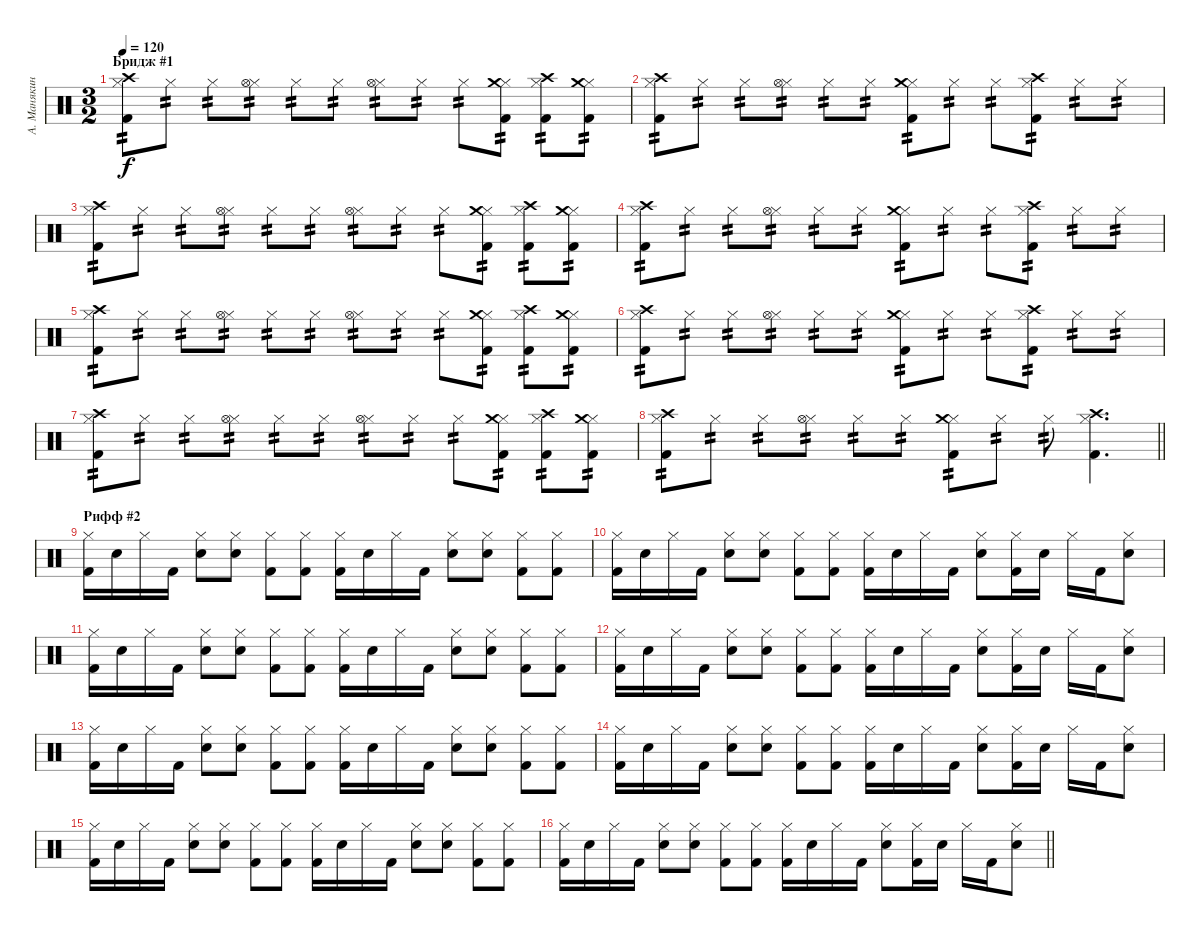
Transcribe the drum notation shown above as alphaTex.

\track ("А. Манякин" "А. Манякин") {instrument percussion}
\staff {score}
\articulation defaults
\ts (3 2)
\section ("" "Бридж #1")
\tempo 120
\clef neutral
\ks c
("Kick (hit) 2" "Hi-Hat (closed)" "Crash high (hit)").8{tp 2 dy f} "Hi-Hat (closed)".8{tp 2} "Hi-Hat (closed)".8{tp 2} ("Hi-Hat (closed)" "Hi-Hat (open)").8{tp 2} "Hi-Hat (closed)".8{tp 2} "Hi-Hat (closed)".8{tp 2} ("Hi-Hat (closed)" "Hi-Hat (open)").8{tp 2} "Hi-Hat (closed)".8{tp 2} "Hi-Hat (closed)".8{tp 2} ("Kick (hit) 2" "Hi-Hat (closed)" "Crash medium (hit)").8{tp 2} ("Kick (hit) 2" "Hi-Hat (closed)" "Crash high (hit)").8{tp 2} ("Kick (hit) 2" "Hi-Hat (closed)" "Crash medium (hit)").8{tp 2} |
("Kick (hit) 2" "Hi-Hat (closed)" "Crash high (hit)").8{tp 2} "Hi-Hat (closed)".8{tp 2} "Hi-Hat (closed)".8{tp 2} ("Hi-Hat (closed)" "Hi-Hat (open)").8{tp 2} "Hi-Hat (closed)".8{tp 2} "Hi-Hat (closed)".8{tp 2} ("Kick (hit) 2" "Hi-Hat (closed)" "Crash medium (hit)").8{tp 2} "Hi-Hat (closed)".8{tp 2} "Hi-Hat (closed)".8{tp 2} ("Kick (hit) 2" "Hi-Hat (closed)" "Crash high (hit)").8{tp 2} "Hi-Hat (closed)".8{tp 2} "Hi-Hat (closed)".8{tp 2} |
("Kick (hit) 2" "Hi-Hat (closed)" "Crash high (hit)").8{tp 2} "Hi-Hat (closed)".8{tp 2} "Hi-Hat (closed)".8{tp 2} ("Hi-Hat (closed)" "Hi-Hat (open)").8{tp 2} "Hi-Hat (closed)".8{tp 2} "Hi-Hat (closed)".8{tp 2} ("Hi-Hat (closed)" "Hi-Hat (open)").8{tp 2} "Hi-Hat (closed)".8{tp 2} "Hi-Hat (closed)".8{tp 2} ("Kick (hit) 2" "Hi-Hat (closed)" "Crash medium (hit)").8{tp 2} ("Kick (hit) 2" "Hi-Hat (closed)" "Crash high (hit)").8{tp 2} ("Kick (hit) 2" "Hi-Hat (closed)" "Crash medium (hit)").8{tp 2} |
("Kick (hit) 2" "Hi-Hat (closed)" "Crash high (hit)").8{tp 2} "Hi-Hat (closed)".8{tp 2} "Hi-Hat (closed)".8{tp 2} ("Hi-Hat (closed)" "Hi-Hat (open)").8{tp 2} "Hi-Hat (closed)".8{tp 2} "Hi-Hat (closed)".8{tp 2} ("Kick (hit) 2" "Hi-Hat (closed)" "Crash medium (hit)").8{tp 2} "Hi-Hat (closed)".8{tp 2} "Hi-Hat (closed)".8{tp 2} ("Kick (hit) 2" "Hi-Hat (closed)" "Crash high (hit)").8{tp 2} "Hi-Hat (closed)".8{tp 2} "Hi-Hat (closed)".8{tp 2} |
("Kick (hit) 2" "Hi-Hat (closed)" "Crash high (hit)").8{tp 2} "Hi-Hat (closed)".8{tp 2} "Hi-Hat (closed)".8{tp 2} ("Hi-Hat (closed)" "Hi-Hat (open)").8{tp 2} "Hi-Hat (closed)".8{tp 2} "Hi-Hat (closed)".8{tp 2} ("Hi-Hat (closed)" "Hi-Hat (open)").8{tp 2} "Hi-Hat (closed)".8{tp 2} "Hi-Hat (closed)".8{tp 2} ("Kick (hit) 2" "Hi-Hat (closed)" "Crash medium (hit)").8{tp 2} ("Kick (hit) 2" "Hi-Hat (closed)" "Crash high (hit)").8{tp 2} ("Kick (hit) 2" "Hi-Hat (closed)" "Crash medium (hit)").8{tp 2} |
("Kick (hit) 2" "Hi-Hat (closed)" "Crash high (hit)").8{tp 2} "Hi-Hat (closed)".8{tp 2} "Hi-Hat (closed)".8{tp 2} ("Hi-Hat (closed)" "Hi-Hat (open)").8{tp 2} "Hi-Hat (closed)".8{tp 2} "Hi-Hat (closed)".8{tp 2} ("Kick (hit) 2" "Hi-Hat (closed)" "Crash medium (hit)").8{tp 2} "Hi-Hat (closed)".8{tp 2} "Hi-Hat (closed)".8{tp 2} ("Kick (hit) 2" "Hi-Hat (closed)" "Crash high (hit)").8{tp 2} "Hi-Hat (closed)".8{tp 2} "Hi-Hat (closed)".8{tp 2} |
("Kick (hit) 2" "Hi-Hat (closed)" "Crash high (hit)").8{tp 2} "Hi-Hat (closed)".8{tp 2} "Hi-Hat (closed)".8{tp 2} ("Hi-Hat (closed)" "Hi-Hat (open)").8{tp 2} "Hi-Hat (closed)".8{tp 2} "Hi-Hat (closed)".8{tp 2} ("Hi-Hat (closed)" "Hi-Hat (open)").8{tp 2} "Hi-Hat (closed)".8{tp 2} "Hi-Hat (closed)".8{tp 2} ("Kick (hit) 2" "Hi-Hat (closed)" "Crash medium (hit)").8{tp 2} ("Kick (hit) 2" "Hi-Hat (closed)" "Crash high (hit)").8{tp 2} ("Kick (hit) 2" "Hi-Hat (closed)" "Crash medium (hit)").8{tp 2} |
\barLineRight lightlight
("Kick (hit) 2" "Hi-Hat (closed)" "Crash high (hit)").8{tp 2} "Hi-Hat (closed)".8{tp 2} "Hi-Hat (closed)".8{tp 2} ("Hi-Hat (closed)" "Hi-Hat (open)").8{tp 2} "Hi-Hat (closed)".8{tp 2} "Hi-Hat (closed)".8{tp 2} ("Kick (hit) 2" "Hi-Hat (closed)" "Crash medium (hit)").8{tp 2} "Hi-Hat (closed)".8{tp 2} "Hi-Hat (closed)".8{tp 2} ("Kick (hit) 2" "Hi-Hat (closed)" "Crash high (hit)").4{d} |
\section ("" "Рифф #2")
("Kick (hit) 2" "Hi-Hat (closed)").16 "Electric Snare (hit)".16 "Hi-Hat (closed)".16 "Kick (hit) 2".16 ("Electric Snare (hit)" "Hi-Hat (closed)").8 ("Electric Snare (hit)" "Hi-Hat (closed)").8 ("Kick (hit) 2" "Hi-Hat (closed)").8 ("Kick (hit) 2" "Hi-Hat (closed)").8 ("Kick (hit) 2" "Hi-Hat (closed)").16 "Electric Snare (hit)".16 "Hi-Hat (closed)".16 "Kick (hit) 2".16 ("Electric Snare (hit)" "Hi-Hat (closed)").8 ("Electric Snare (hit)" "Hi-Hat (closed)").8 ("Kick (hit) 2" "Hi-Hat (closed)").8 ("Kick (hit) 2" "Hi-Hat (closed)").8 |
("Kick (hit) 2" "Hi-Hat (closed)").16 "Electric Snare (hit)".16 "Hi-Hat (closed)".16 "Kick (hit) 2".16 ("Electric Snare (hit)" "Hi-Hat (closed)").8 ("Electric Snare (hit)" "Hi-Hat (closed)").8 ("Kick (hit) 2" "Hi-Hat (closed)").8 ("Kick (hit) 2" "Hi-Hat (closed)").8 ("Kick (hit) 2" "Hi-Hat (closed)").16 "Electric Snare (hit)".16 "Hi-Hat (closed)".16 "Kick (hit) 2".16 ("Electric Snare (hit)" "Hi-Hat (closed)").8 ("Kick (hit) 2" "Hi-Hat (closed)").16 "Electric Snare (hit)".16 "Hi-Hat (closed)".16 "Kick (hit) 2".16 ("Electric Snare (hit)" "Hi-Hat (closed)").8 |
("Kick (hit) 2" "Hi-Hat (closed)").16 "Electric Snare (hit)".16 "Hi-Hat (closed)".16 "Kick (hit) 2".16 ("Electric Snare (hit)" "Hi-Hat (closed)").8 ("Electric Snare (hit)" "Hi-Hat (closed)").8 ("Kick (hit) 2" "Hi-Hat (closed)").8 ("Kick (hit) 2" "Hi-Hat (closed)").8 ("Kick (hit) 2" "Hi-Hat (closed)").16 "Electric Snare (hit)".16 "Hi-Hat (closed)".16 "Kick (hit) 2".16 ("Electric Snare (hit)" "Hi-Hat (closed)").8 ("Electric Snare (hit)" "Hi-Hat (closed)").8 ("Kick (hit) 2" "Hi-Hat (closed)").8 ("Kick (hit) 2" "Hi-Hat (closed)").8 |
("Kick (hit) 2" "Hi-Hat (closed)").16 "Electric Snare (hit)".16 "Hi-Hat (closed)".16 "Kick (hit) 2".16 ("Electric Snare (hit)" "Hi-Hat (closed)").8 ("Electric Snare (hit)" "Hi-Hat (closed)").8 ("Kick (hit) 2" "Hi-Hat (closed)").8 ("Kick (hit) 2" "Hi-Hat (closed)").8 ("Kick (hit) 2" "Hi-Hat (closed)").16 "Electric Snare (hit)".16 "Hi-Hat (closed)".16 "Kick (hit) 2".16 ("Electric Snare (hit)" "Hi-Hat (closed)").8 ("Kick (hit) 2" "Hi-Hat (closed)").16 "Electric Snare (hit)".16 "Hi-Hat (closed)".16 "Kick (hit) 2".16 ("Electric Snare (hit)" "Hi-Hat (closed)").8 |
("Kick (hit) 2" "Hi-Hat (closed)").16 "Electric Snare (hit)".16 "Hi-Hat (closed)".16 "Kick (hit) 2".16 ("Electric Snare (hit)" "Hi-Hat (closed)").8 ("Electric Snare (hit)" "Hi-Hat (closed)").8 ("Kick (hit) 2" "Hi-Hat (closed)").8 ("Kick (hit) 2" "Hi-Hat (closed)").8 ("Kick (hit) 2" "Hi-Hat (closed)").16 "Electric Snare (hit)".16 "Hi-Hat (closed)".16 "Kick (hit) 2".16 ("Electric Snare (hit)" "Hi-Hat (closed)").8 ("Electric Snare (hit)" "Hi-Hat (closed)").8 ("Kick (hit) 2" "Hi-Hat (closed)").8 ("Kick (hit) 2" "Hi-Hat (closed)").8 |
("Kick (hit) 2" "Hi-Hat (closed)").16 "Electric Snare (hit)".16 "Hi-Hat (closed)".16 "Kick (hit) 2".16 ("Electric Snare (hit)" "Hi-Hat (closed)").8 ("Electric Snare (hit)" "Hi-Hat (closed)").8 ("Kick (hit) 2" "Hi-Hat (closed)").8 ("Kick (hit) 2" "Hi-Hat (closed)").8 ("Kick (hit) 2" "Hi-Hat (closed)").16 "Electric Snare (hit)".16 "Hi-Hat (closed)".16 "Kick (hit) 2".16 ("Electric Snare (hit)" "Hi-Hat (closed)").8 ("Kick (hit) 2" "Hi-Hat (closed)").16 "Electric Snare (hit)".16 "Hi-Hat (closed)".16 "Kick (hit) 2".16 ("Electric Snare (hit)" "Hi-Hat (closed)").8 |
("Kick (hit) 2" "Hi-Hat (closed)").16 "Electric Snare (hit)".16 "Hi-Hat (closed)".16 "Kick (hit) 2".16 ("Electric Snare (hit)" "Hi-Hat (closed)").8 ("Electric Snare (hit)" "Hi-Hat (closed)").8 ("Kick (hit) 2" "Hi-Hat (closed)").8 ("Kick (hit) 2" "Hi-Hat (closed)").8 ("Kick (hit) 2" "Hi-Hat (closed)").16 "Electric Snare (hit)".16 "Hi-Hat (closed)".16 "Kick (hit) 2".16 ("Electric Snare (hit)" "Hi-Hat (closed)").8 ("Electric Snare (hit)" "Hi-Hat (closed)").8 ("Kick (hit) 2" "Hi-Hat (closed)").8 ("Kick (hit) 2" "Hi-Hat (closed)").8 |
\barLineRight lightlight
("Kick (hit) 2" "Hi-Hat (closed)").16 "Electric Snare (hit)".16 "Hi-Hat (closed)".16 "Kick (hit) 2".16 ("Electric Snare (hit)" "Hi-Hat (closed)").8 ("Electric Snare (hit)" "Hi-Hat (closed)").8 ("Kick (hit) 2" "Hi-Hat (closed)").8 ("Kick (hit) 2" "Hi-Hat (closed)").8 ("Kick (hit) 2" "Hi-Hat (closed)").16 "Electric Snare (hit)".16 "Hi-Hat (closed)".16 "Kick (hit) 2".16 ("Electric Snare (hit)" "Hi-Hat (closed)").8 ("Kick (hit) 2" "Hi-Hat (closed)").16 "Electric Snare (hit)".16 "Hi-Hat (closed)".16 "Kick (hit) 2".16 ("Electric Snare (hit)" "Hi-Hat (closed)").8
